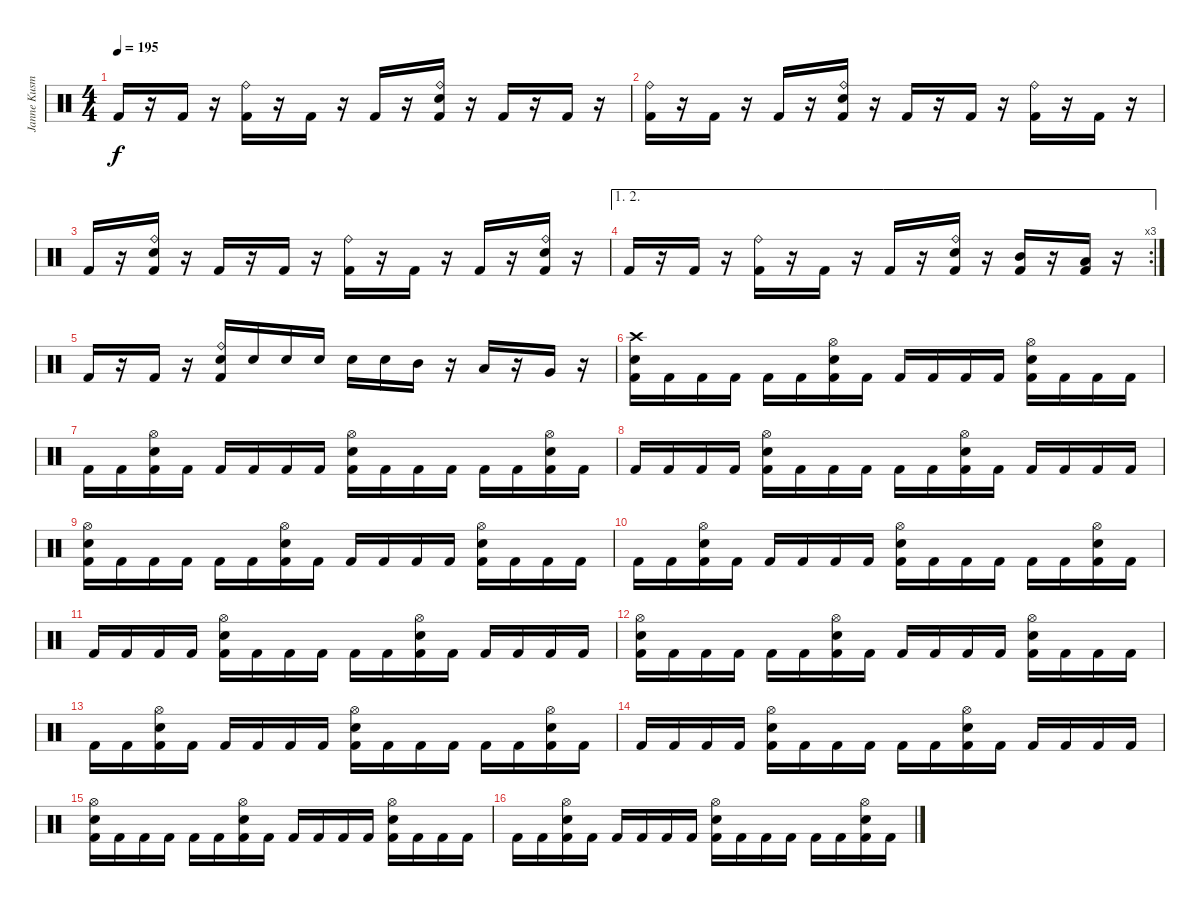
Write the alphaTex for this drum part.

\track ("Janne Kusmin" "Janne Kusm") {instrument percussion}
\staff {score}
\articulation defaults
\ts (4 4)
\tempo 195
\clef neutral
\ks c "Kick (hit) 2".16{dy f}
r.16 "Kick (hit) 2".16 r.16 ("Ride (bell)" "Kick (hit) 2").16 r.16 "Kick (hit) 2".16 r.16 "Kick (hit) 2".16 r.16 ("Ride (bell)" "Snare (hit) 2" "Kick (hit) 2").16 r.16 "Kick (hit) 2".16 r.16 "Kick (hit) 2".16 r.16 |
("Ride (bell)" "Kick (hit) 2").16 r.16 "Kick (hit) 2".16 r.16 "Kick (hit) 2".16 r.16 ("Ride (bell)" "Snare (hit) 2" "Kick (hit) 2").16 r.16 "Kick (hit) 2".16 r.16 "Kick (hit) 2".16 r.16 ("Ride (bell)" "Kick (hit) 2").16 r.16 "Kick (hit) 2".16 r.16 |
"Kick (hit) 2".16 r.16 ("Ride (bell)" "Snare (hit) 2" "Kick (hit) 2").16 r.16 "Kick (hit) 2".16 r.16 "Kick (hit) 2".16 r.16 ("Ride (bell)" "Kick (hit) 2").16 r.16 "Kick (hit) 2".16 r.16 "Kick (hit) 2".16 r.16 ("Ride (bell)" "Snare (hit) 2" "Kick (hit) 2").16 r.16 |
\ae (1 2)
\rc 3 "Kick (hit) 2".16
r.16 "Kick (hit) 2".16 r.16 ("Ride (bell)" "Kick (hit) 2").16 r.16 "Kick (hit) 2".16 r.16 "Kick (hit) 2".16 r.16 ("Ride (bell)" "Snare (hit) 2" "Kick (hit) 2").16 r.16 ("Mid Tom (hit)" "Kick (hit) 2").16 r.16 ("Low Tom (hit)" "Kick (hit) 2").16 r.16 |
"Kick (hit) 2".16 r.16 "Kick (hit) 2".16 r.16 ("Ride (bell)" "Snare (hit) 2" "Kick (hit) 2").16 "Snare (hit) 2".16 "Snare (hit) 2".16 "Snare (hit) 2".16 "Snare (hit) 2".16 "Snare (hit) 2".16 "Mid Tom (hit)".16 r.16 "Low Tom (hit)".16 r.16 "Very Low Tom (hit)".16 r.16 |
("Crash high (hit)" "Snare (hit) 2" "Kick (hit) 2").16 "Kick (hit) 2".16 "Kick (hit) 2".16 "Kick (hit) 2".16 "Kick (hit) 2".16 "Kick (hit) 2".16 ("Hi-Hat (open)" "Snare (hit) 2" "Kick (hit) 2").16 "Kick (hit) 2".16 "Kick (hit) 2".16 "Kick (hit) 2".16 "Kick (hit) 2".16 "Kick (hit) 2".16 ("Hi-Hat (open)" "Snare (hit) 2" "Kick (hit) 2").16 "Kick (hit) 2".16 "Kick (hit) 2".16 "Kick (hit) 2".16 |
"Kick (hit) 2".16 "Kick (hit) 2".16 ("Hi-Hat (open)" "Snare (hit) 2" "Kick (hit) 2").16 "Kick (hit) 2".16 "Kick (hit) 2".16 "Kick (hit) 2".16 "Kick (hit) 2".16 "Kick (hit) 2".16 ("Hi-Hat (open)" "Snare (hit) 2" "Kick (hit) 2").16 "Kick (hit) 2".16 "Kick (hit) 2".16 "Kick (hit) 2".16 "Kick (hit) 2".16 "Kick (hit) 2".16 ("Hi-Hat (open)" "Snare (hit) 2" "Kick (hit) 2").16 "Kick (hit) 2".16 |
"Kick (hit) 2".16 "Kick (hit) 2".16 "Kick (hit) 2".16 "Kick (hit) 2".16 ("Hi-Hat (open)" "Snare (hit) 2" "Kick (hit) 2").16 "Kick (hit) 2".16 "Kick (hit) 2".16 "Kick (hit) 2".16 "Kick (hit) 2".16 "Kick (hit) 2".16 ("Hi-Hat (open)" "Snare (hit) 2" "Kick (hit) 2").16 "Kick (hit) 2".16 "Kick (hit) 2".16 "Kick (hit) 2".16 "Kick (hit) 2".16 "Kick (hit) 2".16 |
("Hi-Hat (open)" "Snare (hit) 2" "Kick (hit) 2").16 "Kick (hit) 2".16 "Kick (hit) 2".16 "Kick (hit) 2".16 "Kick (hit) 2".16 "Kick (hit) 2".16 ("Hi-Hat (open)" "Snare (hit) 2" "Kick (hit) 2").16 "Kick (hit) 2".16 "Kick (hit) 2".16 "Kick (hit) 2".16 "Kick (hit) 2".16 "Kick (hit) 2".16 ("Hi-Hat (open)" "Snare (hit) 2" "Kick (hit) 2").16 "Kick (hit) 2".16 "Kick (hit) 2".16 "Kick (hit) 2".16 |
"Kick (hit) 2".16 "Kick (hit) 2".16 ("Hi-Hat (open)" "Snare (hit) 2" "Kick (hit) 2").16 "Kick (hit) 2".16 "Kick (hit) 2".16 "Kick (hit) 2".16 "Kick (hit) 2".16 "Kick (hit) 2".16 ("Hi-Hat (open)" "Snare (hit) 2" "Kick (hit) 2").16 "Kick (hit) 2".16 "Kick (hit) 2".16 "Kick (hit) 2".16 "Kick (hit) 2".16 "Kick (hit) 2".16 ("Hi-Hat (open)" "Snare (hit) 2" "Kick (hit) 2").16 "Kick (hit) 2".16 |
"Kick (hit) 2".16 "Kick (hit) 2".16 "Kick (hit) 2".16 "Kick (hit) 2".16 ("Hi-Hat (open)" "Snare (hit) 2" "Kick (hit) 2").16 "Kick (hit) 2".16 "Kick (hit) 2".16 "Kick (hit) 2".16 "Kick (hit) 2".16 "Kick (hit) 2".16 ("Hi-Hat (open)" "Snare (hit) 2" "Kick (hit) 2").16 "Kick (hit) 2".16 "Kick (hit) 2".16 "Kick (hit) 2".16 "Kick (hit) 2".16 "Kick (hit) 2".16 |
("Hi-Hat (open)" "Snare (hit) 2" "Kick (hit) 2").16 "Kick (hit) 2".16 "Kick (hit) 2".16 "Kick (hit) 2".16 "Kick (hit) 2".16 "Kick (hit) 2".16 ("Hi-Hat (open)" "Snare (hit) 2" "Kick (hit) 2").16 "Kick (hit) 2".16 "Kick (hit) 2".16 "Kick (hit) 2".16 "Kick (hit) 2".16 "Kick (hit) 2".16 ("Hi-Hat (open)" "Snare (hit) 2" "Kick (hit) 2").16 "Kick (hit) 2".16 "Kick (hit) 2".16 "Kick (hit) 2".16 |
"Kick (hit) 2".16 "Kick (hit) 2".16 ("Hi-Hat (open)" "Snare (hit) 2" "Kick (hit) 2").16 "Kick (hit) 2".16 "Kick (hit) 2".16 "Kick (hit) 2".16 "Kick (hit) 2".16 "Kick (hit) 2".16 ("Hi-Hat (open)" "Snare (hit) 2" "Kick (hit) 2").16 "Kick (hit) 2".16 "Kick (hit) 2".16 "Kick (hit) 2".16 "Kick (hit) 2".16 "Kick (hit) 2".16 ("Hi-Hat (open)" "Snare (hit) 2" "Kick (hit) 2").16 "Kick (hit) 2".16 |
"Kick (hit) 2".16 "Kick (hit) 2".16 "Kick (hit) 2".16 "Kick (hit) 2".16 ("Hi-Hat (open)" "Snare (hit) 2" "Kick (hit) 2").16 "Kick (hit) 2".16 "Kick (hit) 2".16 "Kick (hit) 2".16 "Kick (hit) 2".16 "Kick (hit) 2".16 ("Hi-Hat (open)" "Snare (hit) 2" "Kick (hit) 2").16 "Kick (hit) 2".16 "Kick (hit) 2".16 "Kick (hit) 2".16 "Kick (hit) 2".16 "Kick (hit) 2".16 |
("Hi-Hat (open)" "Snare (hit) 2" "Kick (hit) 2").16 "Kick (hit) 2".16 "Kick (hit) 2".16 "Kick (hit) 2".16 "Kick (hit) 2".16 "Kick (hit) 2".16 ("Hi-Hat (open)" "Snare (hit) 2" "Kick (hit) 2").16 "Kick (hit) 2".16 "Kick (hit) 2".16 "Kick (hit) 2".16 "Kick (hit) 2".16 "Kick (hit) 2".16 ("Hi-Hat (open)" "Snare (hit) 2" "Kick (hit) 2").16 "Kick (hit) 2".16 "Kick (hit) 2".16 "Kick (hit) 2".16 |
"Kick (hit) 2".16 "Kick (hit) 2".16 ("Hi-Hat (open)" "Snare (hit) 2" "Kick (hit) 2").16 "Kick (hit) 2".16 "Kick (hit) 2".16 "Kick (hit) 2".16 "Kick (hit) 2".16 "Kick (hit) 2".16 ("Hi-Hat (open)" "Snare (hit) 2" "Kick (hit) 2").16 "Kick (hit) 2".16 "Kick (hit) 2".16 "Kick (hit) 2".16 "Kick (hit) 2".16 "Kick (hit) 2".16 ("Hi-Hat (open)" "Snare (hit) 2" "Kick (hit) 2").16 "Kick (hit) 2".16
